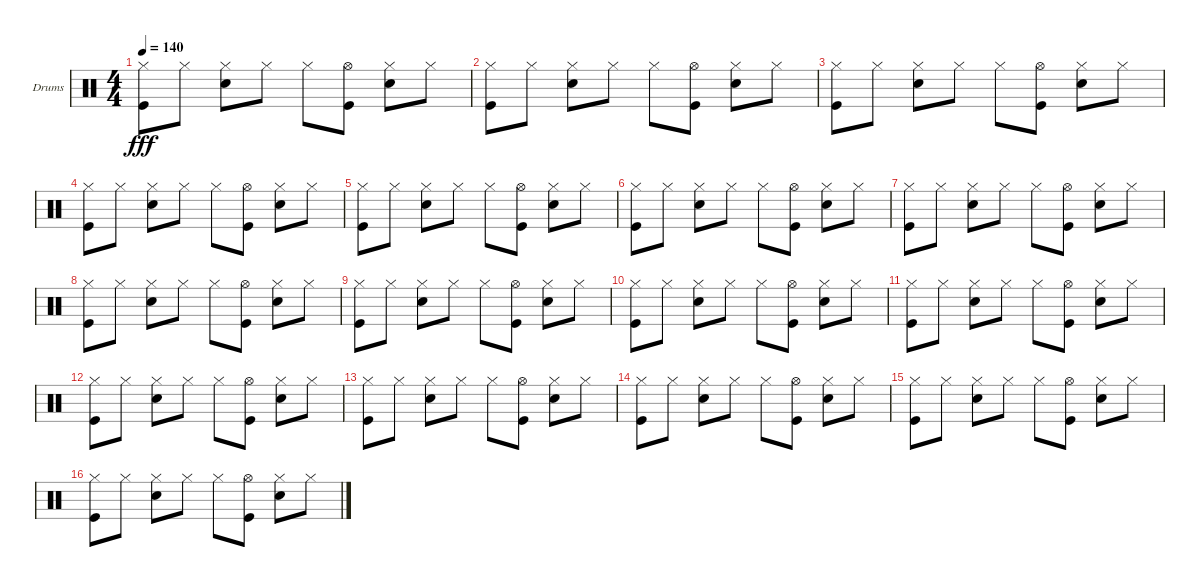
\bracketExtendMode groupsimilarinstruments
\firstSystemTrackNameOrientation horizontal
\otherSystemsTrackNameOrientation horizontal
\track ("Drumkit" "Drums") {instrument percussion}
\staff {score}
\articulation defaults
\ts (4 4)
\tempo 140
\clef neutral
\ks c
("Hi-Hat (closed)" "Kick (hit)").8{dy fff} "Hi-Hat (closed)".8 ("Hi-Hat (closed)" "Snare (hit) 2").8 "Hi-Hat (closed)".8 "Hi-Hat (closed)".8 ("Hi-Hat (open)" "Kick (hit)").8 ("Hi-Hat (closed)" "Snare (hit) 2").8 "Hi-Hat (closed)".8 |
("Hi-Hat (closed)" "Kick (hit)").8 "Hi-Hat (closed)".8 ("Hi-Hat (closed)" "Snare (hit) 2").8 "Hi-Hat (closed)".8 "Hi-Hat (closed)".8 ("Hi-Hat (open)" "Kick (hit)").8 ("Hi-Hat (closed)" "Snare (hit) 2").8 "Hi-Hat (closed)".8 |
("Hi-Hat (closed)" "Kick (hit)").8 "Hi-Hat (closed)".8 ("Hi-Hat (closed)" "Snare (hit) 2").8 "Hi-Hat (closed)".8 "Hi-Hat (closed)".8 ("Hi-Hat (open)" "Kick (hit)").8 ("Hi-Hat (closed)" "Snare (hit) 2").8 "Hi-Hat (closed)".8 |
("Hi-Hat (closed)" "Kick (hit)").8 "Hi-Hat (closed)".8 ("Hi-Hat (closed)" "Snare (hit) 2").8 "Hi-Hat (closed)".8 "Hi-Hat (closed)".8 ("Hi-Hat (open)" "Kick (hit)").8 ("Hi-Hat (closed)" "Snare (hit) 2").8 "Hi-Hat (closed)".8 |
("Hi-Hat (closed)" "Kick (hit)").8 "Hi-Hat (closed)".8 ("Hi-Hat (closed)" "Snare (hit) 2").8 "Hi-Hat (closed)".8 "Hi-Hat (closed)".8 ("Hi-Hat (open)" "Kick (hit)").8 ("Hi-Hat (closed)" "Snare (hit) 2").8 "Hi-Hat (closed)".8 |
("Hi-Hat (closed)" "Kick (hit)").8 "Hi-Hat (closed)".8 ("Hi-Hat (closed)" "Snare (hit) 2").8 "Hi-Hat (closed)".8 "Hi-Hat (closed)".8 ("Hi-Hat (open)" "Kick (hit)").8 ("Hi-Hat (closed)" "Snare (hit) 2").8 "Hi-Hat (closed)".8 |
("Hi-Hat (closed)" "Kick (hit)").8 "Hi-Hat (closed)".8 ("Hi-Hat (closed)" "Snare (hit) 2").8 "Hi-Hat (closed)".8 "Hi-Hat (closed)".8 ("Hi-Hat (open)" "Kick (hit)").8 ("Hi-Hat (closed)" "Snare (hit) 2").8 "Hi-Hat (closed)".8 |
("Hi-Hat (closed)" "Kick (hit)").8 "Hi-Hat (closed)".8 ("Hi-Hat (closed)" "Snare (hit) 2").8 "Hi-Hat (closed)".8 "Hi-Hat (closed)".8 ("Hi-Hat (open)" "Kick (hit)").8 ("Hi-Hat (closed)" "Snare (hit) 2").8 "Hi-Hat (closed)".8 |
("Hi-Hat (closed)" "Kick (hit)").8 "Hi-Hat (closed)".8 ("Hi-Hat (closed)" "Snare (hit) 2").8 "Hi-Hat (closed)".8 "Hi-Hat (closed)".8 ("Hi-Hat (open)" "Kick (hit)").8 ("Hi-Hat (closed)" "Snare (hit) 2").8 "Hi-Hat (closed)".8 |
("Hi-Hat (closed)" "Kick (hit)").8 "Hi-Hat (closed)".8 ("Hi-Hat (closed)" "Snare (hit) 2").8 "Hi-Hat (closed)".8 "Hi-Hat (closed)".8 ("Hi-Hat (open)" "Kick (hit)").8 ("Hi-Hat (closed)" "Snare (hit) 2").8 "Hi-Hat (closed)".8 |
("Hi-Hat (closed)" "Kick (hit)").8 "Hi-Hat (closed)".8 ("Hi-Hat (closed)" "Snare (hit) 2").8 "Hi-Hat (closed)".8 "Hi-Hat (closed)".8 ("Hi-Hat (open)" "Kick (hit)").8 ("Hi-Hat (closed)" "Snare (hit) 2").8 "Hi-Hat (closed)".8 |
("Hi-Hat (closed)" "Kick (hit)").8 "Hi-Hat (closed)".8 ("Hi-Hat (closed)" "Snare (hit) 2").8 "Hi-Hat (closed)".8 "Hi-Hat (closed)".8 ("Hi-Hat (open)" "Kick (hit)").8 ("Hi-Hat (closed)" "Snare (hit) 2").8 "Hi-Hat (closed)".8 |
("Hi-Hat (closed)" "Kick (hit)").8 "Hi-Hat (closed)".8 ("Hi-Hat (closed)" "Snare (hit) 2").8 "Hi-Hat (closed)".8 "Hi-Hat (closed)".8 ("Hi-Hat (open)" "Kick (hit)").8 ("Hi-Hat (closed)" "Snare (hit) 2").8 "Hi-Hat (closed)".8 |
("Hi-Hat (closed)" "Kick (hit)").8 "Hi-Hat (closed)".8 ("Hi-Hat (closed)" "Snare (hit) 2").8 "Hi-Hat (closed)".8 "Hi-Hat (closed)".8 ("Hi-Hat (open)" "Kick (hit)").8 ("Hi-Hat (closed)" "Snare (hit) 2").8 "Hi-Hat (closed)".8 |
("Hi-Hat (closed)" "Kick (hit)").8 "Hi-Hat (closed)".8 ("Hi-Hat (closed)" "Snare (hit) 2").8 "Hi-Hat (closed)".8 "Hi-Hat (closed)".8 ("Hi-Hat (open)" "Kick (hit)").8 ("Hi-Hat (closed)" "Snare (hit) 2").8 "Hi-Hat (closed)".8 |
("Hi-Hat (closed)" "Kick (hit)").8 "Hi-Hat (closed)".8 ("Hi-Hat (closed)" "Snare (hit) 2").8 "Hi-Hat (closed)".8 "Hi-Hat (closed)".8 ("Hi-Hat (open)" "Kick (hit)").8 ("Hi-Hat (closed)" "Snare (hit) 2").8 "Hi-Hat (closed)".8
